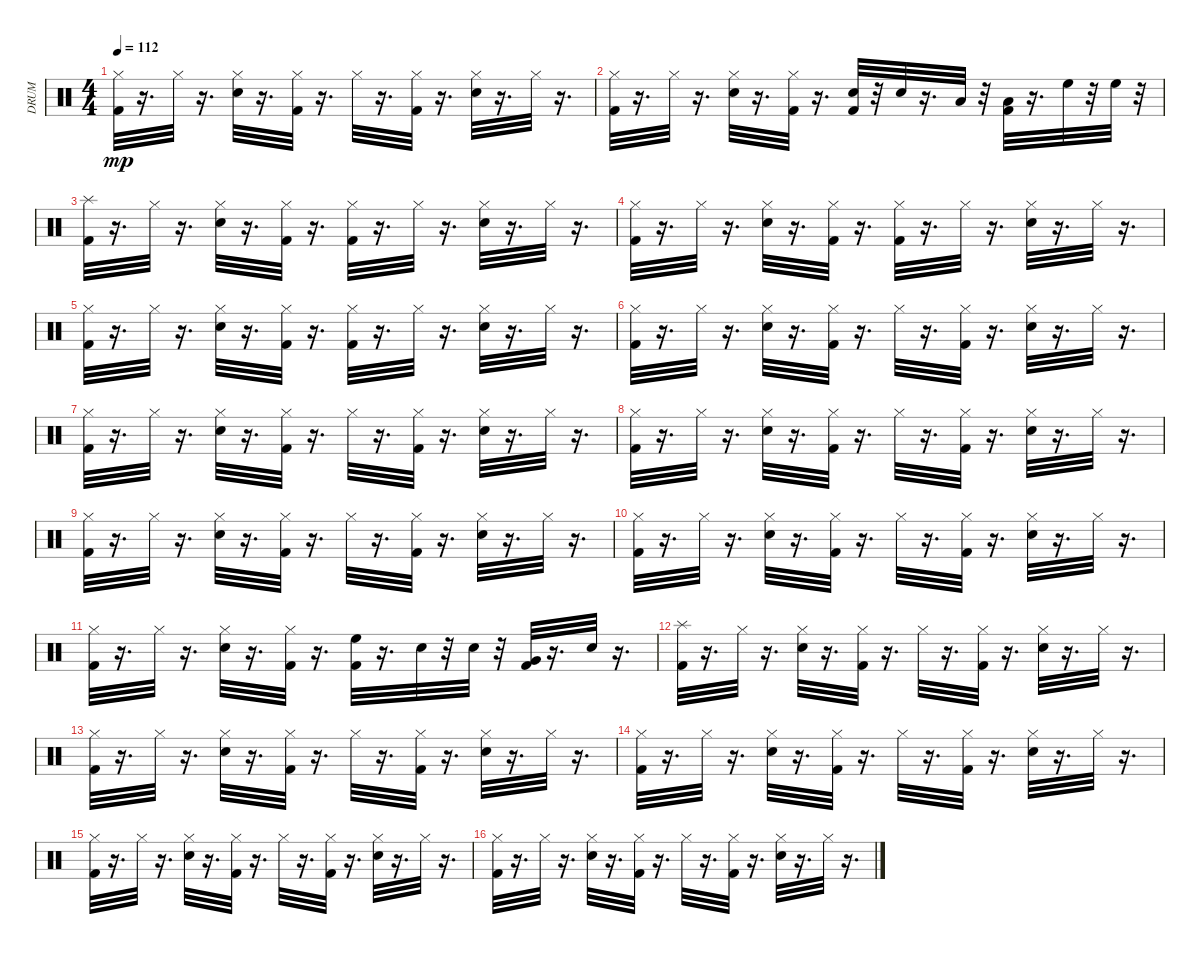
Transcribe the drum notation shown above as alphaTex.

\track ("DRUM" "DRUM") {instrument percussion}
\staff {score}
\articulation defaults
\ts (4 4)
\tempo 112
\clef neutral
\ks c
("Kick (hit) 2" "Hi-Hat (closed)").32{dy mp} r.16{d} "Hi-Hat (closed)".32 r.16{d} ("Hi-Hat (closed)" "Snare (hit) 2").32 r.16{d} ("Kick (hit) 2" "Hi-Hat (closed)").32 r.16{d} "Hi-Hat (closed)".32 r.16{d} ("Kick (hit) 2" "Hi-Hat (closed)").32 r.16{d} ("Hi-Hat (closed)" "Snare (hit) 2").32 r.16{d} "Hi-Hat (closed)".32 r.16{d} |
("Kick (hit) 2" "Hi-Hat (closed)").32 r.16{d} "Hi-Hat (closed)".32 r.16{d} ("Hi-Hat (closed)" "Snare (hit) 2").32 r.16{d} ("Kick (hit) 2" "Hi-Hat (closed)").32 r.16{d} ("Kick (hit) 2" "Snare (hit) 2").32 r.32 "Snare (hit) 2".32 r.16{d} "Low Floor Tom (hit)".32 r.32 ("Kick (hit) 2" "Low Floor Tom (hit)").32 r.16{d} "High Floor Tom (hit)".32 r.32 "High Floor Tom (hit)".32 r.32 |
("Kick (hit) 2" "Splash (hit)").32 r.16{d} "Hi-Hat (closed)".32 r.16{d} ("Hi-Hat (closed)" "Snare (hit) 2").32 r.16{d} ("Kick (hit) 2" "Hi-Hat (closed)").32 r.16{d} ("Kick (hit) 2" "Hi-Hat (closed)").32 r.16{d} "Hi-Hat (closed)".32 r.16{d} ("Hi-Hat (closed)" "Snare (hit) 2").32 r.16{d} "Hi-Hat (closed)".32 r.16{d} |
("Kick (hit) 2" "Hi-Hat (closed)").32 r.16{d} "Hi-Hat (closed)".32 r.16{d} ("Hi-Hat (closed)" "Snare (hit) 2").32 r.16{d} ("Kick (hit) 2" "Hi-Hat (closed)").32 r.16{d} ("Kick (hit) 2" "Hi-Hat (closed)").32 r.16{d} "Hi-Hat (closed)".32 r.16{d} ("Hi-Hat (closed)" "Snare (hit) 2").32 r.16{d} "Hi-Hat (closed)".32 r.16{d} |
("Kick (hit) 2" "Hi-Hat (closed)").32 r.16{d} "Hi-Hat (closed)".32 r.16{d} ("Hi-Hat (closed)" "Snare (hit) 2").32 r.16{d} ("Kick (hit) 2" "Hi-Hat (closed)").32 r.16{d} ("Kick (hit) 2" "Hi-Hat (closed)").32 r.16{d} "Hi-Hat (closed)".32 r.16{d} ("Hi-Hat (closed)" "Snare (hit) 2").32 r.16{d} "Hi-Hat (closed)".32 r.16{d} |
("Kick (hit) 2" "Hi-Hat (closed)").32 r.16{d} "Hi-Hat (closed)".32 r.16{d} ("Hi-Hat (closed)" "Snare (hit) 2").32 r.16{d} ("Kick (hit) 2" "Hi-Hat (closed)").32 r.16{d} "Hi-Hat (closed)".32 r.16{d} ("Kick (hit) 2" "Hi-Hat (closed)").32 r.16{d} ("Hi-Hat (closed)" "Snare (hit) 2").32 r.16{d} "Hi-Hat (closed)".32 r.16{d} |
("Kick (hit) 2" "Hi-Hat (closed)").32 r.16{d} "Hi-Hat (closed)".32 r.16{d} ("Hi-Hat (closed)" "Snare (hit) 2").32 r.16{d} ("Kick (hit) 2" "Hi-Hat (closed)").32 r.16{d} "Hi-Hat (closed)".32 r.16{d} ("Kick (hit) 2" "Hi-Hat (closed)").32 r.16{d} ("Hi-Hat (closed)" "Snare (hit) 2").32 r.16{d} "Hi-Hat (closed)".32 r.16{d} |
("Kick (hit) 2" "Hi-Hat (closed)").32 r.16{d} "Hi-Hat (closed)".32 r.16{d} ("Hi-Hat (closed)" "Snare (hit) 2").32 r.16{d} ("Kick (hit) 2" "Hi-Hat (closed)").32 r.16{d} "Hi-Hat (closed)".32 r.16{d} ("Kick (hit) 2" "Hi-Hat (closed)").32 r.16{d} ("Hi-Hat (closed)" "Snare (hit) 2").32 r.16{d} "Hi-Hat (closed)".32 r.16{d} |
("Kick (hit) 2" "Hi-Hat (closed)").32 r.16{d} "Hi-Hat (closed)".32 r.16{d} ("Hi-Hat (closed)" "Snare (hit) 2").32 r.16{d} ("Kick (hit) 2" "Hi-Hat (closed)").32 r.16{d} "Hi-Hat (closed)".32 r.16{d} ("Kick (hit) 2" "Hi-Hat (closed)").32 r.16{d} ("Hi-Hat (closed)" "Snare (hit) 2").32 r.16{d} "Hi-Hat (closed)".32 r.16{d} |
("Kick (hit) 2" "Hi-Hat (closed)").32 r.16{d} "Hi-Hat (closed)".32 r.16{d} ("Hi-Hat (closed)" "Snare (hit) 2").32 r.16{d} ("Kick (hit) 2" "Hi-Hat (closed)").32 r.16{d} "Hi-Hat (closed)".32 r.16{d} ("Kick (hit) 2" "Hi-Hat (closed)").32 r.16{d} ("Hi-Hat (closed)" "Snare (hit) 2").32 r.16{d} "Hi-Hat (closed)".32 r.16{d} |
("Kick (hit) 2" "Hi-Hat (closed)").32 r.16{d} "Hi-Hat (closed)".32 r.16{d} ("Hi-Hat (closed)" "Snare (hit) 2").32 r.16{d} ("Kick (hit) 2" "Hi-Hat (closed)").32 r.16{d} ("Kick (hit) 2" "High Floor Tom (hit)").32 r.16{d} "Snare (hit) 2".32 r.32 "Snare (hit) 2".32 r.32 ("Kick (hit) 2" "Very Low Tom (hit)").32 r.16{d} "Electric Snare (hit)".32 r.16{d} |
("Kick (hit) 2" "Splash (hit)").32 r.16{d} "Hi-Hat (closed)".32 r.16{d} ("Hi-Hat (closed)" "Snare (hit) 2").32 r.16{d} ("Kick (hit) 2" "Hi-Hat (closed)").32 r.16{d} "Hi-Hat (closed)".32 r.16{d} ("Kick (hit) 2" "Hi-Hat (closed)").32 r.16{d} ("Hi-Hat (closed)" "Snare (hit) 2").32 r.16{d} "Hi-Hat (closed)".32 r.16{d} |
("Kick (hit) 2" "Hi-Hat (closed)").32 r.16{d} "Hi-Hat (closed)".32 r.16{d} ("Hi-Hat (closed)" "Snare (hit) 2").32 r.16{d} ("Kick (hit) 2" "Hi-Hat (closed)").32 r.16{d} "Hi-Hat (closed)".32 r.16{d} ("Kick (hit) 2" "Hi-Hat (closed)").32 r.16{d} ("Hi-Hat (closed)" "Snare (hit) 2").32 r.16{d} "Hi-Hat (closed)".32 r.16{d} |
("Kick (hit) 2" "Hi-Hat (closed)").32 r.16{d} "Hi-Hat (closed)".32 r.16{d} ("Hi-Hat (closed)" "Snare (hit) 2").32 r.16{d} ("Kick (hit) 2" "Hi-Hat (closed)").32 r.16{d} "Hi-Hat (closed)".32 r.16{d} ("Kick (hit) 2" "Hi-Hat (closed)").32 r.16{d} ("Hi-Hat (closed)" "Snare (hit) 2").32 r.16{d} "Hi-Hat (closed)".32 r.16{d} |
("Kick (hit) 2" "Hi-Hat (closed)").32 r.16{d} "Hi-Hat (closed)".32 r.16{d} ("Hi-Hat (closed)" "Snare (hit) 2").32 r.16{d} ("Kick (hit) 2" "Hi-Hat (closed)").32 r.16{d} "Hi-Hat (closed)".32 r.16{d} ("Kick (hit) 2" "Hi-Hat (closed)").32 r.16{d} ("Hi-Hat (closed)" "Snare (hit) 2").32 r.16{d} "Hi-Hat (closed)".32 r.16{d} |
("Kick (hit) 2" "Hi-Hat (closed)").32 r.16{d} "Hi-Hat (closed)".32 r.16{d} ("Hi-Hat (closed)" "Snare (hit) 2").32 r.16{d} ("Kick (hit) 2" "Hi-Hat (closed)").32 r.16{d} "Hi-Hat (closed)".32 r.16{d} ("Kick (hit) 2" "Hi-Hat (closed)").32 r.16{d} ("Hi-Hat (closed)" "Snare (hit) 2").32 r.16{d} "Hi-Hat (closed)".32 r.16{d}
